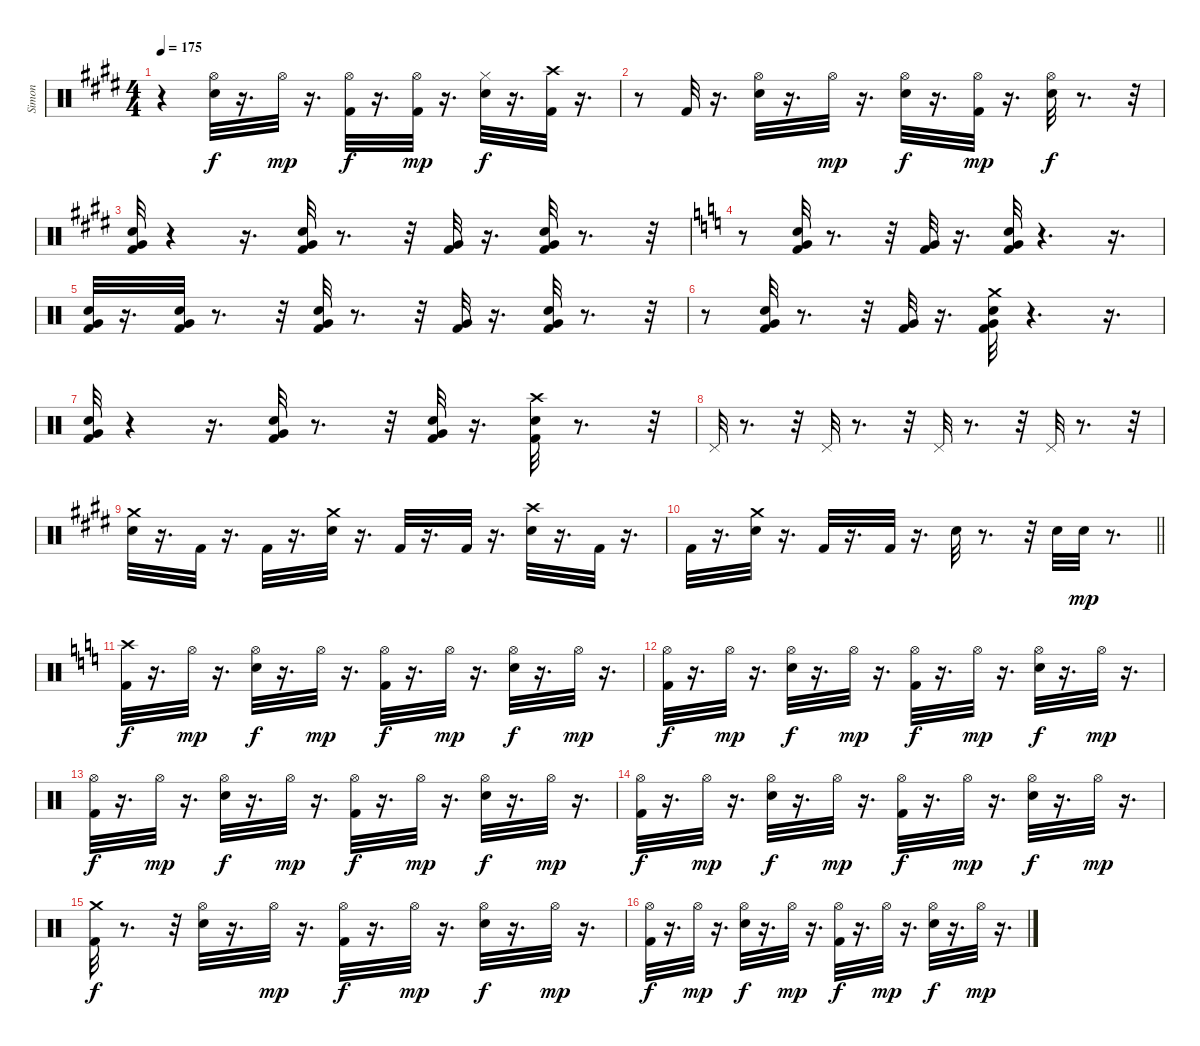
\track ("Simon" "Simon") {instrument percussion}
\staff {score}
\articulation defaults
\ts (4 4)
\tempo 175
\clef neutral
\ks c#minor
r.4{dy f} ("Electric Snare (hit)" "Hi-Hat (open)").32 r.16{d} "Hi-Hat (open)".32{dy mp} r.16{d} ("Hi-Hat (open)" "Kick (hit) 2").32{dy f} r.16{d} ("Kick (hit) 2" "Hi-Hat (open)").32{dy mp} r.16{d} ("Hi-Hat (closed)" "Electric Snare (hit)").32{dy f} r.16{d} ("Crash high (hit)" "Kick (hit) 2").32 r.16{d} |
r.8 "Kick (hit) 2".32 r.16{d} ("Hi-Hat (open)" "Electric Snare (hit)").32 r.16{d} "Hi-Hat (open)".32{dy mp} r.16{d} ("Electric Snare (hit)" "Hi-Hat (open)").32{dy f} r.16{d} ("Hi-Hat (open)" "Kick (hit) 2").32{dy mp} r.16{d} ("Hi-Hat (open)" "Electric Snare (hit)").32{dy f} r.8{d} r.32 |
\ks e
("Very Low Tom (hit)" "Electric Snare (hit)" "Kick (hit) 2").32 r.4 r.16{d} ("Very Low Tom (hit)" "Kick (hit) 2" "Electric Snare (hit)").32 r.8{d} r.32 ("Very Low Tom (hit)" "Kick (hit) 2").32 r.16{d} ("Very Low Tom (hit)" "Kick (hit) 2" "Electric Snare (hit)").32 r.8{d} r.32 |
\ks c
r.8 ("Kick (hit) 2" "Electric Snare (hit)" "Very Low Tom (hit)").32 r.8{d} r.32 ("Very Low Tom (hit)" "Kick (hit) 2").32 r.16{d} ("Very Low Tom (hit)" "Electric Snare (hit)" "Kick (hit) 2").32 r.4{d} r.16{d} |
("Very Low Tom (hit)" "Kick (hit) 2" "Electric Snare (hit)").32 r.16{d} ("Very Low Tom (hit)" "Kick (hit) 2" "Electric Snare (hit)").32 r.8{d} r.32 ("Very Low Tom (hit)" "Kick (hit) 2" "Electric Snare (hit)").32 r.8{d} r.32 ("Very Low Tom (hit)" "Kick (hit) 2").32 r.16{d} ("Very Low Tom (hit)" "Kick (hit) 2" "Electric Snare (hit)").32 r.8{d} r.32 |
r.8 ("Very Low Tom (hit)" "Kick (hit) 2" "Electric Snare (hit)").32 r.8{d} r.32 ("Very Low Tom (hit)" "Kick (hit) 2").32 r.16{d} ("Very Low Tom (hit)" "Crash medium (hit)" "Kick (hit) 2" "Electric Snare (hit)").32 r.4{d} r.16{d} |
("Very Low Tom (hit)" "Kick (hit) 2" "Electric Snare (hit)").32 r.4 r.16{d} ("Very Low Tom (hit)" "Kick (hit) 2" "Electric Snare (hit)").32 r.8{d} r.32 ("Very Low Tom (hit)" "Kick (hit) 2" "Electric Snare (hit)").32 r.16{d} ("Crash high (hit)" "Kick (hit) 2" "Electric Snare (hit)").32 r.8{d} r.32 |
"Pedal Hi-Hat (hit)".32 r.8{d} r.32 "Pedal Hi-Hat (hit)".32 r.8{d} r.32 "Pedal Hi-Hat (hit)".32 r.8{d} r.32 "Pedal Hi-Hat (hit)".32 r.8{d} r.32 |
\ks c#minor
("Crash medium (hit)" "Electric Snare (hit)").32 r.16{d} "Kick (hit) 2".32 r.16{d} "Kick (hit) 2".32 r.16{d} ("Crash medium (hit)" "Electric Snare (hit)").32 r.16{d} "Kick (hit) 2".32 r.16{d} "Kick (hit) 2".32 r.16{d} ("Crash high (hit)" "Electric Snare (hit)").32 r.16{d} "Kick (hit) 2".32 r.16{d} |
\barLineRight lightlight "Kick (hit) 2".32
r.16{d} ("Crash medium (hit)" "Electric Snare (hit)").32 r.16{d} "Kick (hit) 2".32 r.16{d} "Kick (hit) 2".32 r.16{d} "Electric Snare (hit)".32 r.8{d} r.32 "Electric Snare (hit)".32 "Snare (hit) 2".32{dy mp} r.8{d} |
\ks c
("Crash high (hit)" "Kick (hit) 2").32{dy f} r.16{d} "Hi-Hat (open)".32{dy mp} r.16{d} ("Hi-Hat (open)" "Electric Snare (hit)").32{dy f} r.16{d} "Hi-Hat (open)".32{dy mp} r.16{d} ("Hi-Hat (open)" "Kick (hit) 2").32{dy f} r.16{d} "Hi-Hat (open)".32{dy mp} r.16{d} ("Hi-Hat (open)" "Electric Snare (hit)").32{dy f} r.16{d} "Hi-Hat (open)".32{dy mp} r.16{d} |
("Hi-Hat (open)" "Kick (hit) 2").32{dy f} r.16{d} "Hi-Hat (open)".32{dy mp} r.16{d} ("Hi-Hat (open)" "Electric Snare (hit)").32{dy f} r.16{d} "Hi-Hat (open)".32{dy mp} r.16{d} ("Hi-Hat (open)" "Kick (hit) 2").32{dy f} r.16{d} "Hi-Hat (open)".32{dy mp} r.16{d} ("Hi-Hat (open)" "Electric Snare (hit)").32{dy f} r.16{d} "Hi-Hat (open)".32{dy mp} r.16{d} |
("Hi-Hat (open)" "Kick (hit) 2").32{dy f} r.16{d} "Hi-Hat (open)".32{dy mp} r.16{d} ("Hi-Hat (open)" "Electric Snare (hit)").32{dy f} r.16{d} "Hi-Hat (open)".32{dy mp} r.16{d} ("Hi-Hat (open)" "Kick (hit) 2").32{dy f} r.16{d} "Hi-Hat (open)".32{dy mp} r.16{d} ("Hi-Hat (open)" "Electric Snare (hit)").32{dy f} r.16{d} "Hi-Hat (open)".32{dy mp} r.16{d} |
("Hi-Hat (open)" "Kick (hit) 2").32{dy f} r.16{d} "Hi-Hat (open)".32{dy mp} r.16{d} ("Hi-Hat (open)" "Electric Snare (hit)").32{dy f} r.16{d} "Hi-Hat (open)".32{dy mp} r.16{d} ("Hi-Hat (open)" "Kick (hit) 2").32{dy f} r.16{d} "Hi-Hat (open)".32{dy mp} r.16{d} ("Hi-Hat (open)" "Electric Snare (hit)").32{dy f} r.16{d} "Hi-Hat (open)".32{dy mp} r.16{d} |
("Crash medium (hit)" "Kick (hit) 2").32{dy f} r.8{d} r.32 ("Hi-Hat (open)" "Electric Snare (hit)").32 r.16{d} "Hi-Hat (open)".32{dy mp} r.16{d} ("Hi-Hat (open)" "Kick (hit) 2").32{dy f} r.16{d} "Hi-Hat (open)".32{dy mp} r.16{d} ("Hi-Hat (open)" "Electric Snare (hit)").32{dy f} r.16{d} "Hi-Hat (open)".32{dy mp} r.16{d} |
("Hi-Hat (open)" "Kick (hit) 2").32{dy f} r.16{d} "Hi-Hat (open)".32{dy mp} r.16{d} ("Hi-Hat (open)" "Electric Snare (hit)").32{dy f} r.16{d} "Hi-Hat (open)".32{dy mp} r.16{d} ("Hi-Hat (open)" "Kick (hit) 2").32{dy f} r.16{d} "Hi-Hat (open)".32{dy mp} r.16{d} ("Hi-Hat (open)" "Electric Snare (hit)").32{dy f} r.16{d} "Hi-Hat (open)".32{dy mp} r.16{d}
